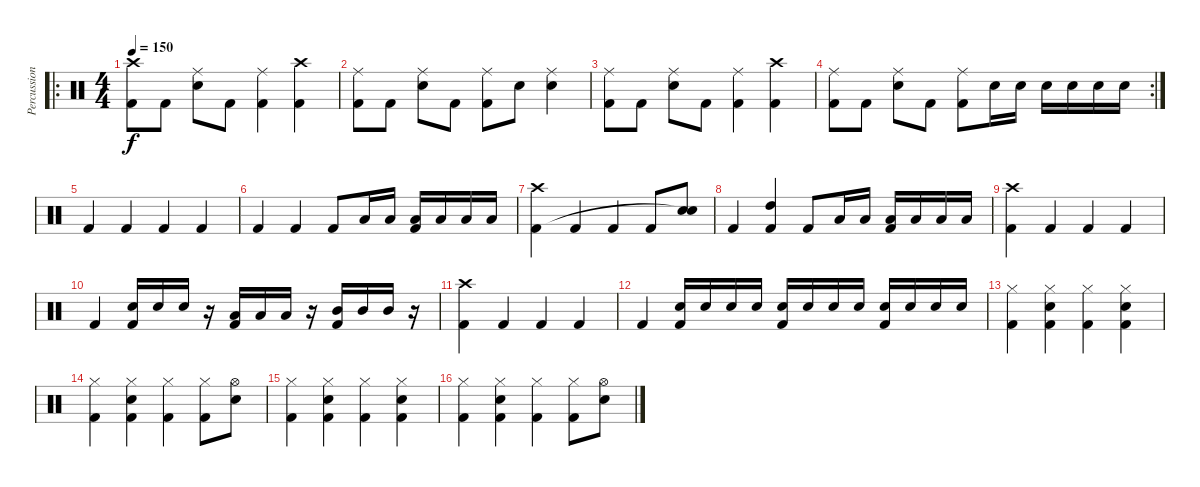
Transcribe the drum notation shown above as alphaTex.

\track ("Percussion" "Percussion") {instrument percussion}
\staff {score}
\articulation defaults
\ro
\ts (4 4)
\tempo 150
\clef neutral
\ks c
("Crash high (hit)" "Kick (hit) 2").8{dy f} "Kick (hit) 2".8 ("Ride (middle)" "Snare (hit) 2").8 "Kick (hit) 2".8 ("Ride (middle)" "Kick (hit) 2").4 ("Crash high (hit)" "Kick (hit) 2").4 |
("Ride (middle)" "Kick (hit) 2").8 "Kick (hit) 2".8 ("Ride (middle)" "Snare (hit) 2").8 "Kick (hit) 2".8 ("Ride (middle)" "Kick (hit) 2").8 "Snare (hit) 2".8 ("Ride (middle)" "Snare (hit) 2").4 |
("Ride (middle)" "Kick (hit) 2").8 "Kick (hit) 2".8 ("Ride (middle)" "Snare (hit) 2").8 "Kick (hit) 2".8 ("Ride (middle)" "Kick (hit) 2").4 ("Crash high (hit)" "Kick (hit) 2").4 |
\rc 2
("Ride (middle)" "Kick (hit) 2").8 "Kick (hit) 2".8 ("Ride (middle)" "Snare (hit) 2").8 "Kick (hit) 2".8 ("Ride (middle)" "Kick (hit) 2").8 "Snare (hit) 2".16 "Snare (hit) 2".16 "Snare (hit) 2".16 "Snare (hit) 2".16 "Snare (hit) 2".16 "Snare (hit) 2".16 |
"Kick (hit) 2".4 "Kick (hit) 2".4 "Kick (hit) 2".4 "Kick (hit) 2".4 |
"Kick (hit) 2".4 "Kick (hit) 2".4 "Kick (hit) 2".8 "Low Floor Tom (hit)".16 "Low Floor Tom (hit)".16 ("Low Floor Tom (hit)" "Kick (hit) 2").16 "Low Floor Tom (hit)".16 "Low Floor Tom (hit)".16 "Low Floor Tom (hit)".16 |
("Crash high (hit)" "Kick (hit) 2").4 "Kick (hit) 2".4 "Kick (hit) 2".4 "Kick (hit) 2".8 ("Snare (hit) 2" "Snare (hit)"{t}).8 |
"Kick (hit) 2".4 ("High Tom (hit)" "Kick (hit) 2").4 "Kick (hit) 2".8 "Low Floor Tom (hit)".16 "Low Floor Tom (hit)".16 ("Low Floor Tom (hit)" "Kick (hit) 2").16 "Low Floor Tom (hit)".16 "Low Floor Tom (hit)".16 "Low Floor Tom (hit)".16 |
("Crash high (hit)" "Kick (hit) 2").4 "Kick (hit) 2".4 "Kick (hit) 2".4 "Kick (hit) 2".4 |
"Kick (hit) 2".4 ("Snare (hit) 2" "Kick (hit) 2").16 "Snare (hit) 2".16 "Snare (hit) 2".16 r.16 ("Low Floor Tom (hit)" "Kick (hit) 2").16 "Low Floor Tom (hit)".16 "Low Floor Tom (hit)".16 r.16 ("Mid Tom (hit)" "Kick (hit) 2").16 "Mid Tom (hit)".16 "Mid Tom (hit)".16 r.16 |
("Crash high (hit)" "Kick (hit) 2").4 "Kick (hit) 2".4 "Kick (hit) 2".4 "Kick (hit) 2".4 |
"Kick (hit) 2".4 ("Snare (hit) 2" "Kick (hit) 2").16 "Snare (hit) 2".16 "Snare (hit) 2".16 "Snare (hit) 2".16 ("Snare (hit) 2" "Kick (hit) 2").16 "Snare (hit) 2".16 "Snare (hit) 2".16 "Snare (hit) 2".16 ("Snare (hit) 2" "Kick (hit) 2").16 "Snare (hit) 2".16 "Snare (hit) 2".16 "Snare (hit) 2".16 |
("Hi-Hat (closed)" "Kick (hit) 2").4 ("Hi-Hat (closed)" "Kick (hit) 2" "Snare (hit) 2").4 ("Hi-Hat (closed)" "Kick (hit) 2").4 ("Hi-Hat (closed)" "Kick (hit) 2" "Snare (hit) 2").4 |
("Hi-Hat (closed)" "Kick (hit) 2").4 ("Hi-Hat (closed)" "Kick (hit) 2" "Snare (hit) 2").4 ("Hi-Hat (closed)" "Kick (hit) 2").4 ("Hi-Hat (closed)" "Kick (hit) 2").8 ("Hi-Hat (open)" "Snare (hit) 2").8 |
("Hi-Hat (closed)" "Kick (hit) 2").4 ("Hi-Hat (closed)" "Kick (hit) 2" "Snare (hit) 2").4 ("Hi-Hat (closed)" "Kick (hit) 2").4 ("Hi-Hat (closed)" "Kick (hit) 2" "Snare (hit) 2").4 |
("Hi-Hat (closed)" "Kick (hit) 2").4 ("Hi-Hat (closed)" "Kick (hit) 2" "Snare (hit) 2").4 ("Hi-Hat (closed)" "Kick (hit) 2").4 ("Hi-Hat (closed)" "Kick (hit) 2").8 ("Hi-Hat (open)" "Snare (hit) 2").8
